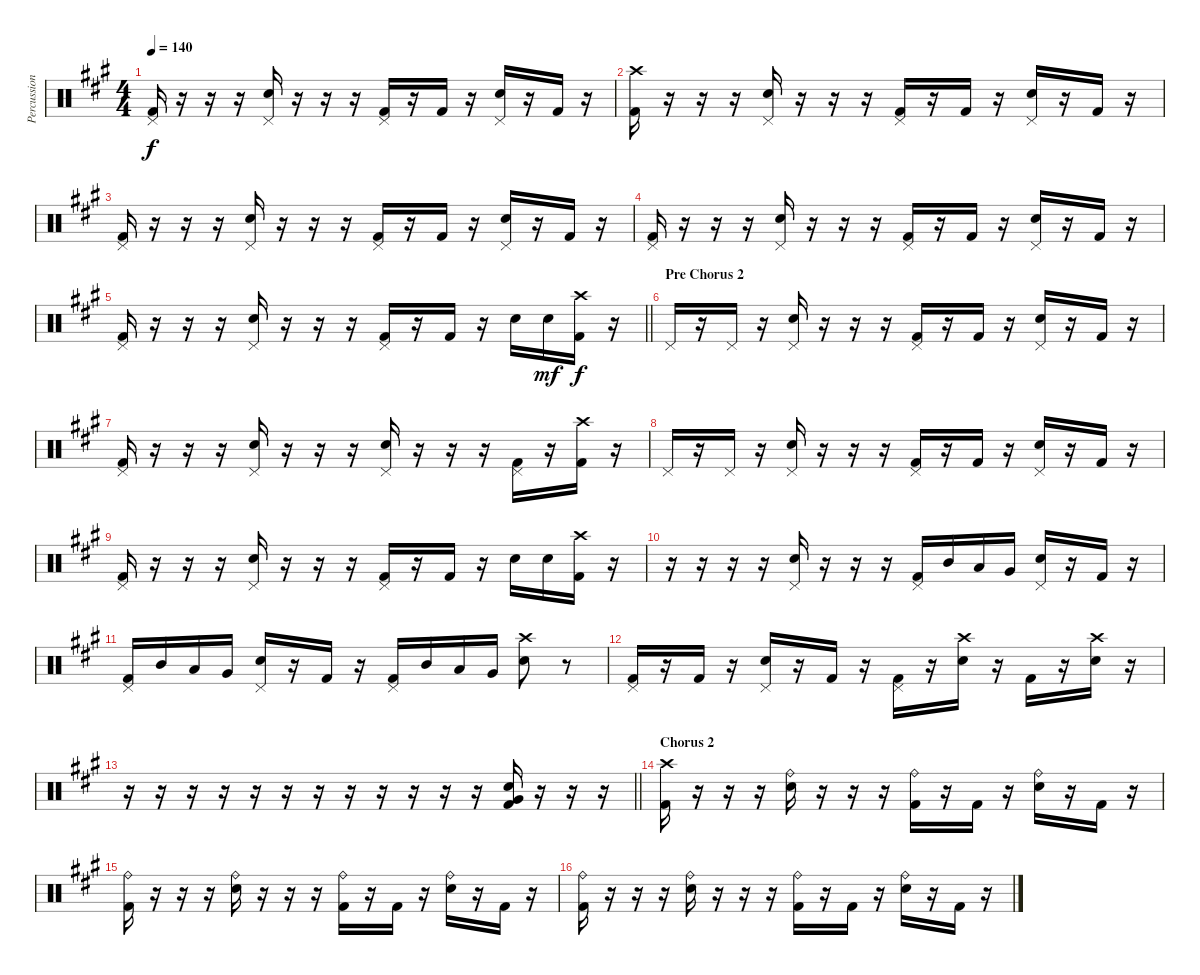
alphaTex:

\track ("Percussion" "Percussion") {instrument percussion}
\staff {score}
\articulation defaults
\ts (4 4)
\tempo 140
\clef neutral
\ks a
("Kick (hit) 2" "Pedal Hi-Hat (hit)").16{dy f} r.16{beam merge} r.16 r.16{beam merge} ("Electric Snare (hit)" "Pedal Hi-Hat (hit)").16 r.16 r.16{beam merge} r.16 ("Kick (hit) 2" "Pedal Hi-Hat (hit)").16 r.16 "Kick (hit) 2".16 r.16 ("Electric Snare (hit)" "Pedal Hi-Hat (hit)").16 r.16{beam merge} "Kick (hit) 2".16 r.16 |
("Kick (hit) 2" "Crash high (hit)").16 r.16{beam merge} r.16 r.16{beam merge} ("Electric Snare (hit)" "Pedal Hi-Hat (hit)").16 r.16 r.16{beam merge} r.16 ("Kick (hit) 2" "Pedal Hi-Hat (hit)").16 r.16 "Kick (hit) 2".16 r.16 ("Electric Snare (hit)" "Pedal Hi-Hat (hit)").16 r.16{beam merge} "Kick (hit) 2".16 r.16 |
("Kick (hit) 2" "Pedal Hi-Hat (hit)").16 r.16{beam merge} r.16 r.16{beam merge} ("Electric Snare (hit)" "Pedal Hi-Hat (hit)").16 r.16 r.16{beam merge} r.16 ("Kick (hit) 2" "Pedal Hi-Hat (hit)").16 r.16 "Kick (hit) 2".16 r.16 ("Electric Snare (hit)" "Pedal Hi-Hat (hit)").16 r.16{beam merge} "Kick (hit) 2".16 r.16 |
("Kick (hit) 2" "Pedal Hi-Hat (hit)").16 r.16{beam merge} r.16 r.16{beam merge} ("Electric Snare (hit)" "Pedal Hi-Hat (hit)").16 r.16 r.16{beam merge} r.16 ("Kick (hit) 2" "Pedal Hi-Hat (hit)").16 r.16 "Kick (hit) 2".16 r.16 ("Electric Snare (hit)" "Pedal Hi-Hat (hit)").16 r.16{beam merge} "Kick (hit) 2".16 r.16 |
\barLineRight lightlight
("Kick (hit) 2" "Pedal Hi-Hat (hit)").16 r.16{beam merge} r.16 r.16{beam merge} ("Electric Snare (hit)" "Pedal Hi-Hat (hit)").16 r.16 r.16{beam merge} r.16 ("Kick (hit) 2" "Pedal Hi-Hat (hit)").16 r.16 "Kick (hit) 2".16 r.16 "Electric Snare (hit)".16 "Electric Snare (hit)".16{dy mf beam merge} ("Kick (hit) 2" "Crash high (hit)").16{dy f} r.16 |
\section ("" "Pre Chorus 2")
"Pedal Hi-Hat (hit)".16 r.16{beam merge} "Pedal Hi-Hat (hit)".16 r.16{beam merge} ("Electric Snare (hit)" "Pedal Hi-Hat (hit)").16 r.16 r.16{beam merge} r.16 ("Kick (hit) 2" "Pedal Hi-Hat (hit)").16 r.16 "Kick (hit) 2".16 r.16 ("Electric Snare (hit)" "Pedal Hi-Hat (hit)").16 r.16{beam merge} "Kick (hit) 2".16 r.16 |
("Kick (hit) 2" "Pedal Hi-Hat (hit)").16 r.16{beam merge} r.16 r.16{beam merge} ("Electric Snare (hit)" "Pedal Hi-Hat (hit)").16 r.16 r.16{beam merge} r.16 ("Electric Snare (hit)" "Pedal Hi-Hat (hit)").16 r.16 r.16 r.16 ("Kick (hit) 2" "Pedal Hi-Hat (hit)").16 r.16{beam merge} ("Kick (hit) 2" "Crash high (hit)").16 r.16 |
"Pedal Hi-Hat (hit)".16 r.16{beam merge} "Pedal Hi-Hat (hit)".16 r.16{beam merge} ("Electric Snare (hit)" "Pedal Hi-Hat (hit)").16 r.16 r.16{beam merge} r.16 ("Kick (hit) 2" "Pedal Hi-Hat (hit)").16 r.16 "Kick (hit) 2".16 r.16 ("Electric Snare (hit)" "Pedal Hi-Hat (hit)").16 r.16{beam merge} "Kick (hit) 2".16 r.16 |
("Kick (hit) 2" "Pedal Hi-Hat (hit)").16 r.16{beam merge} r.16 r.16{beam merge} ("Electric Snare (hit)" "Pedal Hi-Hat (hit)").16 r.16 r.16{beam merge} r.16 ("Kick (hit) 2" "Pedal Hi-Hat (hit)").16 r.16 "Kick (hit) 2".16 r.16 "Electric Snare (hit)".16 "Electric Snare (hit)".16{beam merge} ("Kick (hit) 2" "Crash high (hit)").16 r.16 |
r.16 r.16{beam merge} r.16 r.16{beam merge} ("Electric Snare (hit)" "Pedal Hi-Hat (hit)").16 r.16 r.16 r.16 ("Kick (hit) 2" "Pedal Hi-Hat (hit)").16 "Mid Tom (hit)".16 "Low Tom (hit)".16 "Very Low Tom (hit)".16 ("Electric Snare (hit)" "Pedal Hi-Hat (hit)").16{beam merge} r.16 "Kick (hit) 2".16{beam merge} r.16 |
("Kick (hit) 2" "Pedal Hi-Hat (hit)").16 "Mid Tom (hit)".16 "Low Tom (hit)".16 "Very Low Tom (hit)".16 ("Electric Snare (hit)" "Pedal Hi-Hat (hit)").16{beam merge} r.16 "Kick (hit) 2".16 r.16 ("Kick (hit) 2" "Pedal Hi-Hat (hit)").16 "Mid Tom (hit)".16 "Low Tom (hit)".16 "Very Low Tom (hit)".16 ("Electric Snare (hit)" "Crash high (hit)").8 r.8 |
("Kick (hit) 2" "Pedal Hi-Hat (hit)").16{beam merge} r.16 "Kick (hit) 2".16 r.16 ("Electric Snare (hit)" "Pedal Hi-Hat (hit)").16{beam merge} r.16{beam merge} "Kick (hit) 2".16 r.16 ("Kick (hit) 2" "Pedal Hi-Hat (hit)").16{beam merge} r.16{beam merge} ("Electric Snare (hit)" "Crash high (hit)").16 r.16 "Kick (hit) 2".16 r.16{beam merge} ("Electric Snare (hit)" "Crash high (hit)").16 r.16 |
\barLineRight lightlight
r.16 r.16{beam merge} r.16 r.16{beam merge} r.16{beam merge} r.16 r.16 r.16 r.16 r.16 r.16 r.16 ("Kick (hit) 2" "Very Low Tom (hit)" "Electric Snare (hit)").16 r.16 r.16 r.16 |
\section ("" "Chorus 2")
("Kick (hit) 2" "Crash high (hit)").16 r.16{beam merge} r.16 r.16{beam merge} ("Electric Snare (hit)" "Ride (bell)").16 r.16 r.16{beam merge} r.16 ("Kick (hit) 2" "Ride (bell)").16 r.16 "Kick (hit) 2".16 r.16 ("Electric Snare (hit)" "Ride (bell)").16 r.16{beam merge} "Kick (hit) 2".16 r.16 |
("Kick (hit) 2" "Ride (bell)").16 r.16{beam merge} r.16 r.16{beam merge} ("Electric Snare (hit)" "Ride (bell)").16 r.16 r.16{beam merge} r.16 ("Kick (hit) 2" "Ride (bell)").16 r.16 "Kick (hit) 2".16 r.16 ("Electric Snare (hit)" "Ride (bell)").16 r.16{beam merge} "Kick (hit) 2".16 r.16 |
("Kick (hit) 2" "Ride (bell)").16 r.16{beam merge} r.16 r.16{beam merge} ("Electric Snare (hit)" "Ride (bell)").16 r.16 r.16{beam merge} r.16 ("Kick (hit) 2" "Ride (bell)").16 r.16 "Kick (hit) 2".16 r.16 ("Electric Snare (hit)" "Ride (bell)").16 r.16{beam merge} "Kick (hit) 2".16 r.16
